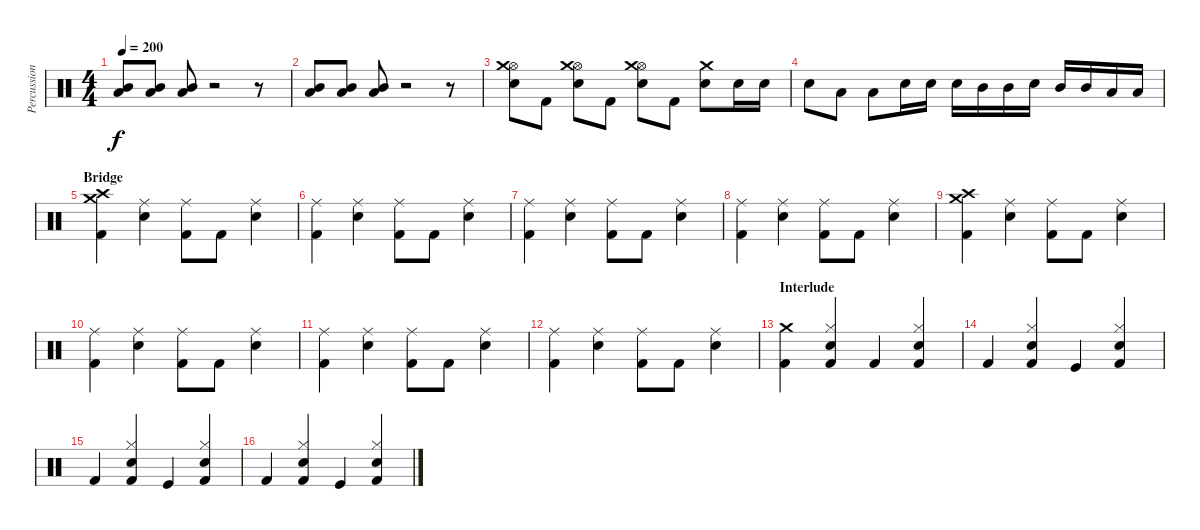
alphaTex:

\track ("Percussion" "Percussion") {instrument percussion}
\staff {score}
\articulation defaults
\ts (4 4)
\tempo 200
\clef neutral
\ks c
("Low Floor Tom (hit)" "Mid Tom (hit)").8{dy f} ("Low Floor Tom (hit)" "Mid Tom (hit)").8 ("Low Floor Tom (hit)" "Mid Tom (hit)").8 r.2 r.8 |
("Low Floor Tom (hit)" "Mid Tom (hit)").8 ("Low Floor Tom (hit)" "Mid Tom (hit)").8 ("Low Floor Tom (hit)" "Mid Tom (hit)").8 r.2 r.8 |
("Hi-Hat (open)" "Electric Snare (hit)" "Crash medium (hit)").8 "Kick (hit) 2".8 ("Hi-Hat (open)" "Electric Snare (hit)" "Crash medium (hit)").8 "Kick (hit) 2".8 ("Hi-Hat (open)" "Electric Snare (hit)" "Crash medium (hit)").8 "Kick (hit) 2".8 ("Electric Snare (hit)" "Crash medium (hit)").8 "Electric Snare (hit)".16 "Electric Snare (hit)".16 |
"Electric Snare (hit)".8 "Low Floor Tom (hit)".8 "Low Floor Tom (hit)".8 "Electric Snare (hit)".16 "Electric Snare (hit)".16 "Electric Snare (hit)".16 "Mid Tom (hit)".16 "Mid Tom (hit)".16 "Electric Snare (hit)".16 "Mid Tom (hit)".16 "Mid Tom (hit)".16 "Low Floor Tom (hit)".16 "Low Floor Tom (hit)".16 |
\section ("" "Bridge")
("Crash medium (hit)" "Crash high (hit)" "Kick (hit) 2").4 ("Ride (middle)" "Electric Snare (hit)").4 ("Ride (middle)" "Kick (hit) 2").8 "Kick (hit) 2".8 ("Ride (middle)" "Electric Snare (hit)").4 |
("Ride (middle)" "Kick (hit) 2").4 ("Ride (middle)" "Electric Snare (hit)").4 ("Ride (middle)" "Kick (hit) 2").8 "Kick (hit) 2".8 ("Ride (middle)" "Electric Snare (hit)").4 |
("Ride (middle)" "Kick (hit) 2").4 ("Ride (middle)" "Electric Snare (hit)").4 ("Ride (middle)" "Kick (hit) 2").8 "Kick (hit) 2".8 ("Ride (middle)" "Electric Snare (hit)").4 |
("Ride (middle)" "Kick (hit) 2").4 ("Ride (middle)" "Electric Snare (hit)").4 ("Ride (middle)" "Kick (hit) 2").8 "Kick (hit) 2".8 ("Ride (middle)" "Electric Snare (hit)").4 |
("Crash medium (hit)" "Crash high (hit)" "Kick (hit) 2").4 ("Ride (middle)" "Electric Snare (hit)").4 ("Ride (middle)" "Kick (hit) 2").8 "Kick (hit) 2".8 ("Ride (middle)" "Electric Snare (hit)").4 |
("Ride (middle)" "Kick (hit) 2").4 ("Ride (middle)" "Electric Snare (hit)").4 ("Ride (middle)" "Kick (hit) 2").8 "Kick (hit) 2".8 ("Ride (middle)" "Electric Snare (hit)").4 |
("Ride (middle)" "Kick (hit) 2").4 ("Ride (middle)" "Electric Snare (hit)").4 ("Ride (middle)" "Kick (hit) 2").8 "Kick (hit) 2".8 ("Ride (middle)" "Electric Snare (hit)").4 |
("Ride (middle)" "Kick (hit) 2").4 ("Ride (middle)" "Electric Snare (hit)").4 ("Ride (middle)" "Kick (hit) 2").8 "Kick (hit) 2".8 ("Ride (middle)" "Electric Snare (hit)").4 |
\section ("" "Interlude")
("Crash medium (hit)" "Kick (hit) 2").4 ("Hi-Hat (closed)" "Snare (hit) 2" "Kick (hit) 2").4 "Kick (hit) 2".4 ("Hi-Hat (closed)" "Snare (hit) 2" "Kick (hit) 2").4 |
"Kick (hit) 2".4 ("Hi-Hat (closed)" "Snare (hit) 2" "Kick (hit) 2").4 "Kick (hit)".4 ("Hi-Hat (closed)" "Snare (hit) 2" "Kick (hit) 2").4 |
"Kick (hit) 2".4 ("Hi-Hat (closed)" "Snare (hit) 2" "Kick (hit) 2").4 "Kick (hit)".4 ("Hi-Hat (closed)" "Snare (hit) 2" "Kick (hit) 2").4 |
"Kick (hit) 2".4 ("Hi-Hat (closed)" "Snare (hit) 2" "Kick (hit) 2").4 "Kick (hit)".4 ("Hi-Hat (closed)" "Snare (hit) 2" "Kick (hit) 2").4
